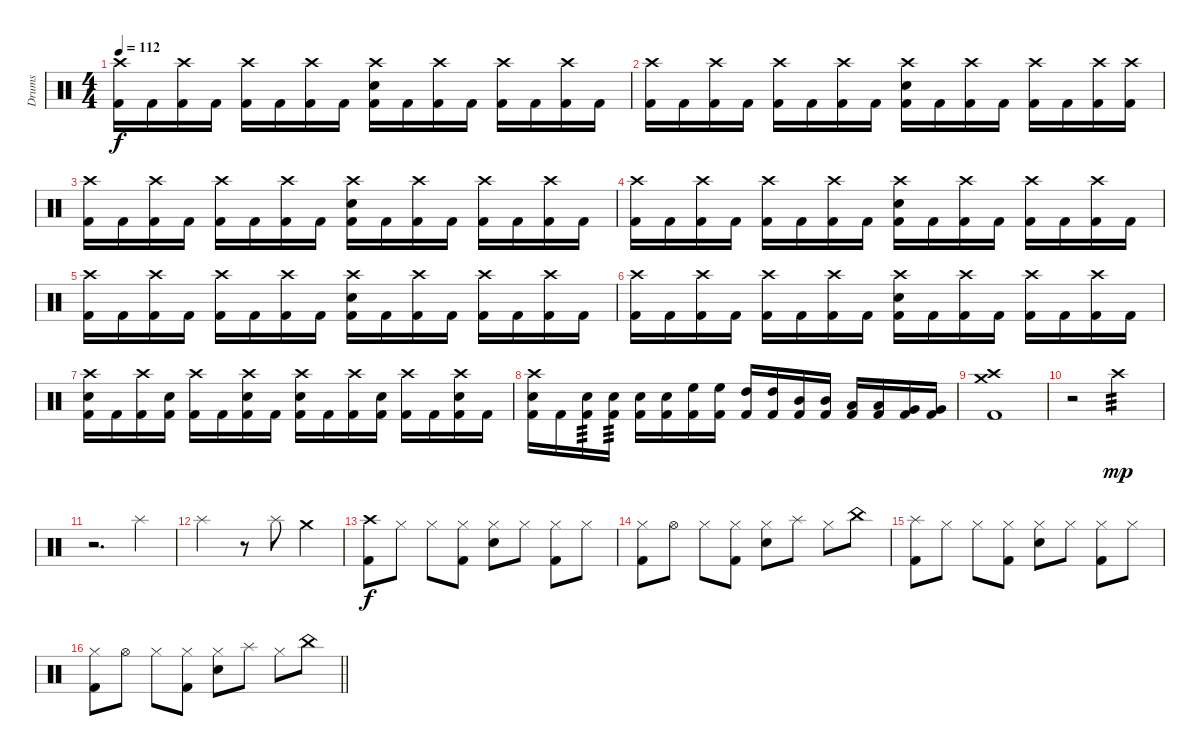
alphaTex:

\track ("Drums" "Drums") {instrument percussion}
\staff {score}
\articulation defaults
\ts (4 4)
\tempo 112
\clef neutral
\ks c
("Crash high (hit)" "Kick (hit) 2").16{dy f} "Kick (hit) 2".16 ("Kick (hit) 2" "Crash high (hit)").16 "Kick (hit) 2".16 ("Crash high (hit)" "Kick (hit) 2").16 "Kick (hit) 2".16 ("Kick (hit) 2" "Crash high (hit)").16 "Kick (hit) 2".16 ("Crash high (hit)" "Kick (hit) 2" "Snare (hit) 2").16 "Kick (hit) 2".16 ("Kick (hit) 2" "Crash high (hit)").16 "Kick (hit) 2".16 ("Crash high (hit)" "Kick (hit) 2").16 "Kick (hit) 2".16 ("Kick (hit) 2" "Crash high (hit)").16 "Kick (hit) 2".16 |
("Crash high (hit)" "Kick (hit) 2").16 "Kick (hit) 2".16 ("Kick (hit) 2" "Crash high (hit)").16 "Kick (hit) 2".16 ("Crash high (hit)" "Kick (hit) 2").16 "Kick (hit) 2".16 ("Kick (hit) 2" "Crash high (hit)").16 "Kick (hit) 2".16 ("Crash high (hit)" "Kick (hit) 2" "Snare (hit) 2").16 "Kick (hit) 2".16 ("Kick (hit) 2" "Crash high (hit)").16 "Kick (hit) 2".16 ("Crash high (hit)" "Kick (hit) 2").16 "Kick (hit) 2".16 ("Kick (hit) 2" "Crash high (hit)").16 ("Crash high (hit)" "Kick (hit) 2").16 |
("Crash high (hit)" "Kick (hit) 2").16 "Kick (hit) 2".16 ("Kick (hit) 2" "Crash high (hit)").16 "Kick (hit) 2".16 ("Crash high (hit)" "Kick (hit) 2").16 "Kick (hit) 2".16 ("Kick (hit) 2" "Crash high (hit)").16 "Kick (hit) 2".16 ("Crash high (hit)" "Kick (hit) 2" "Snare (hit) 2").16 "Kick (hit) 2".16 ("Kick (hit) 2" "Crash high (hit)").16 "Kick (hit) 2".16 ("Crash high (hit)" "Kick (hit) 2").16 "Kick (hit) 2".16 ("Kick (hit) 2" "Crash high (hit)").16 "Kick (hit) 2".16 |
("Crash high (hit)" "Kick (hit) 2").16 "Kick (hit) 2".16 ("Kick (hit) 2" "Crash high (hit)").16 "Kick (hit) 2".16 ("Crash high (hit)" "Kick (hit) 2").16 "Kick (hit) 2".16 ("Kick (hit) 2" "Crash high (hit)").16 "Kick (hit) 2".16 ("Crash high (hit)" "Kick (hit) 2" "Snare (hit) 2").16 "Kick (hit) 2".16 ("Kick (hit) 2" "Crash high (hit)").16 "Kick (hit) 2".16 ("Crash high (hit)" "Kick (hit) 2").16 "Kick (hit) 2".16 ("Kick (hit) 2" "Crash high (hit)").16 "Kick (hit) 2".16 |
("Crash high (hit)" "Kick (hit) 2").16 "Kick (hit) 2".16 ("Kick (hit) 2" "Crash high (hit)").16 "Kick (hit) 2".16 ("Crash high (hit)" "Kick (hit) 2").16 "Kick (hit) 2".16 ("Kick (hit) 2" "Crash high (hit)").16 "Kick (hit) 2".16 ("Crash high (hit)" "Kick (hit) 2" "Snare (hit) 2").16 "Kick (hit) 2".16 ("Kick (hit) 2" "Crash high (hit)").16 "Kick (hit) 2".16 ("Crash high (hit)" "Kick (hit) 2").16 "Kick (hit) 2".16 ("Kick (hit) 2" "Crash high (hit)").16 "Kick (hit) 2".16 |
("Crash high (hit)" "Kick (hit) 2").16 "Kick (hit) 2".16 ("Kick (hit) 2" "Crash high (hit)").16 "Kick (hit) 2".16 ("Crash high (hit)" "Kick (hit) 2").16 "Kick (hit) 2".16 ("Kick (hit) 2" "Crash high (hit)").16 "Kick (hit) 2".16 ("Crash high (hit)" "Kick (hit) 2" "Snare (hit) 2").16 "Kick (hit) 2".16 ("Kick (hit) 2" "Crash high (hit)").16 "Kick (hit) 2".16 ("Crash high (hit)" "Kick (hit) 2").16 "Kick (hit) 2".16 ("Kick (hit) 2" "Crash high (hit)").16 "Kick (hit) 2".16 |
("Crash high (hit)" "Kick (hit) 2" "Snare (hit) 2").16 "Kick (hit) 2".16 ("Kick (hit) 2" "Crash high (hit)").16 ("Kick (hit) 2" "Snare (hit) 2").16 ("Crash high (hit)" "Kick (hit) 2").16 "Kick (hit) 2".16 ("Kick (hit) 2" "Crash high (hit)" "Snare (hit) 2").16 "Kick (hit) 2".16 ("Crash high (hit)" "Kick (hit) 2" "Snare (hit) 2").16 "Kick (hit) 2".16 ("Kick (hit) 2" "Crash high (hit)").16 ("Kick (hit) 2" "Snare (hit) 2").16 ("Crash high (hit)" "Kick (hit) 2").16 "Kick (hit) 2".16 ("Kick (hit) 2" "Crash high (hit)" "Snare (hit) 2").16 "Kick (hit) 2".16 |
("Crash high (hit)" "Kick (hit) 2" "Snare (hit) 2").16 "Kick (hit) 2".16 ("Kick (hit) 2" "Snare (hit) 2").16{tp 3} ("Kick (hit) 2" "Snare (hit) 2").16{tp 3} ("Snare (hit) 2" "Kick (hit) 2").16 ("Kick (hit) 2" "Snare (hit) 2").16 ("Kick (hit) 2" "High Floor Tom (hit)").16 ("Kick (hit) 2" "High Floor Tom (hit)").16 ("High Tom (hit)" "Kick (hit) 2").16 ("Kick (hit) 2" "High Tom (hit)").16 ("Kick (hit) 2" "Mid Tom (hit)").16 ("Kick (hit) 2" "Mid Tom (hit)").16 ("Low Tom (hit)" "Kick (hit) 2").16 ("Kick (hit) 2" "Low Tom (hit)").16 ("Kick (hit) 2" "Very Low Tom (hit)").16 ("Kick (hit) 2" "Very Low Tom (hit)").16 |
("Crash high (hit)" "Kick (hit) 2" "Crash medium (hit)").1 |
r.2 "Crash high (hit)".2{tp 3 dy mp} |
r.2{d} "Splash (hit)".4 |
"Splash (hit)".2 r.8 "Splash (hit)".8 "Crash medium (hit)".4 |
("Crash high (hit)" "Kick (hit) 2").8{dy f} "Hi-Hat (closed)".8 "Hi-Hat (closed)".8 ("Hi-Hat (closed)" "Kick (hit) 2").8 ("Hi-Hat (closed)" "Snare (hit) 2").8 "Hi-Hat (closed)".8 ("Hi-Hat (closed)" "Kick (hit) 2").8 "Hi-Hat (closed)".8 |
("Hi-Hat (closed)" "Kick (hit) 2").8 "Hi-Hat (open)".8 "Hi-Hat (closed)".8 ("Hi-Hat (closed)" "Kick (hit) 2").8 ("Hi-Hat (closed)" "Snare (hit) 2").8 "Splash (hit)".8 "Hi-Hat (closed)".8 "China (hit)".8 |
("Splash (hit)" "Kick (hit) 2").8 "Hi-Hat (closed)".8 "Hi-Hat (closed)".8 ("Hi-Hat (closed)" "Kick (hit) 2").8 ("Hi-Hat (closed)" "Snare (hit) 2").8 "Hi-Hat (closed)".8 ("Hi-Hat (closed)" "Kick (hit) 2").8 "Hi-Hat (closed)".8 |
\barLineRight lightlight
("Hi-Hat (closed)" "Kick (hit) 2").8 "Hi-Hat (open)".8 "Hi-Hat (closed)".8 ("Hi-Hat (closed)" "Kick (hit) 2").8 ("Hi-Hat (closed)" "Snare (hit) 2").8 "Splash (hit)".8 "Hi-Hat (closed)".8 "China (hit)".8
